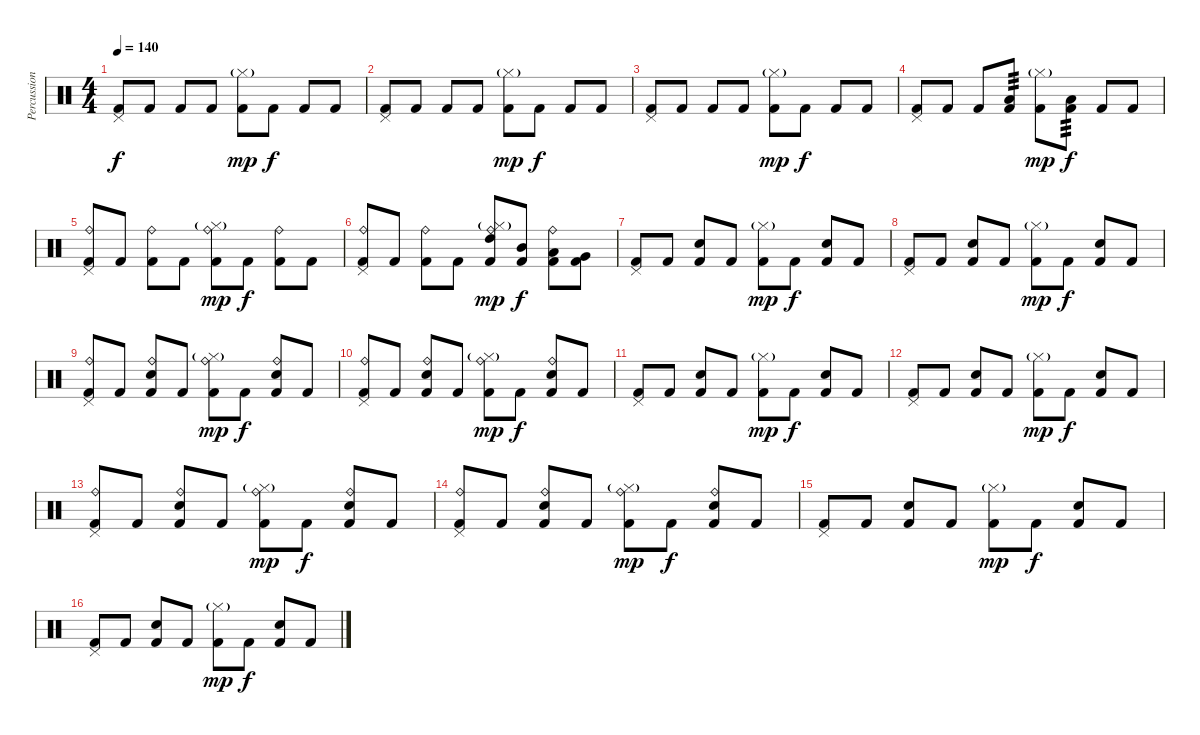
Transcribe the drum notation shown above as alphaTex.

\track ("Percussions" "Percussion") {instrument percussion}
\staff {score}
\articulation defaults
\ts (4 4)
\tempo 140
\clef neutral
\ks c
("Pedal Hi-Hat (hit)" "Kick (hit) 2").8{dy f} "Kick (hit) 2".8 "Kick (hit) 2".8 "Kick (hit) 2".8 ("Hi-Hat (closed)"{g} "Kick (hit) 2").8{dy mp} "Kick (hit) 2".8{dy f} "Kick (hit) 2".8 "Kick (hit) 2".8 |
("Pedal Hi-Hat (hit)" "Kick (hit) 2").8 "Kick (hit) 2".8 "Kick (hit) 2".8 "Kick (hit) 2".8 ("Hi-Hat (closed)"{g} "Kick (hit) 2").8{dy mp} "Kick (hit) 2".8{dy f} "Kick (hit) 2".8 "Kick (hit) 2".8 |
("Pedal Hi-Hat (hit)" "Kick (hit) 2").8 "Kick (hit) 2".8 "Kick (hit) 2".8 "Kick (hit) 2".8 ("Hi-Hat (closed)"{g} "Kick (hit) 2").8{dy mp} "Kick (hit) 2".8{dy f} "Kick (hit) 2".8 "Kick (hit) 2".8 |
("Pedal Hi-Hat (hit)" "Kick (hit) 2").8 "Kick (hit) 2".8 "Kick (hit) 2".8 ("Low Tom (hit)" "Kick (hit) 2").8{tp 3} ("Hi-Hat (closed)"{g} "Kick (hit) 2").8{dy mp} ("Low Tom (hit)" "Kick (hit) 2").8{tp 3 dy f} "Kick (hit) 2".8 "Kick (hit) 2".8 |
("Ride (bell)" "Pedal Hi-Hat (hit)" "Kick (hit) 2").8 "Kick (hit) 2".8 ("Ride (bell)" "Kick (hit) 2").8 "Kick (hit) 2".8 ("Ride (bell)" "Hi-Hat (closed)"{g} "Kick (hit) 2").8{dy mp} "Kick (hit) 2".8{dy f} ("Ride (bell)" "Kick (hit) 2").8 "Kick (hit) 2".8 |
("Ride (bell)" "Pedal Hi-Hat (hit)" "Kick (hit) 2").8 "Kick (hit) 2".8 ("Ride (bell)" "Kick (hit) 2").8 "Kick (hit) 2".8 ("High Tom (hit)" "Ride (bell)" "Hi-Hat (closed)"{g} "Kick (hit) 2").8{dy mp} ("Mid Tom (hit)" "Kick (hit) 2").8{dy f} ("Low Tom (hit)" "Ride (bell)" "Kick (hit) 2").8 ("Very Low Tom (hit)" "Kick (hit) 2").8 |
("Pedal Hi-Hat (hit)" "Kick (hit) 2").8 "Kick (hit) 2".8 ("Snare (hit) 2" "Kick (hit) 2").8 "Kick (hit) 2".8 ("Hi-Hat (closed)"{g} "Kick (hit) 2").8{dy mp} "Kick (hit) 2".8{dy f} ("Snare (hit) 2" "Kick (hit) 2").8 "Kick (hit) 2".8 |
("Pedal Hi-Hat (hit)" "Kick (hit) 2").8 "Kick (hit) 2".8 ("Snare (hit) 2" "Kick (hit) 2").8 "Kick (hit) 2".8 ("Hi-Hat (closed)"{g} "Kick (hit) 2").8{dy mp} "Kick (hit) 2".8{dy f} ("Snare (hit) 2" "Kick (hit) 2").8 "Kick (hit) 2".8 |
("Ride (bell)" "Pedal Hi-Hat (hit)" "Kick (hit) 2").8 "Kick (hit) 2".8 ("Ride (bell)" "Snare (hit) 2" "Kick (hit) 2").8 "Kick (hit) 2".8 ("Ride (bell)" "Hi-Hat (closed)"{g} "Kick (hit) 2").8{dy mp} "Kick (hit) 2".8{dy f} ("Ride (bell)" "Snare (hit) 2" "Kick (hit) 2").8 "Kick (hit) 2".8 |
("Ride (bell)" "Pedal Hi-Hat (hit)" "Kick (hit) 2").8 "Kick (hit) 2".8 ("Ride (bell)" "Snare (hit) 2" "Kick (hit) 2").8 "Kick (hit) 2".8 ("Ride (bell)" "Hi-Hat (closed)"{g} "Kick (hit) 2").8{dy mp} "Kick (hit) 2".8{dy f} ("Ride (bell)" "Snare (hit) 2" "Kick (hit) 2").8 "Kick (hit) 2".8 |
("Pedal Hi-Hat (hit)" "Kick (hit) 2").8 "Kick (hit) 2".8 ("Snare (hit) 2" "Kick (hit) 2").8 "Kick (hit) 2".8 ("Hi-Hat (closed)"{g} "Kick (hit) 2").8{dy mp} "Kick (hit) 2".8{dy f} ("Snare (hit) 2" "Kick (hit) 2").8 "Kick (hit) 2".8 |
("Pedal Hi-Hat (hit)" "Kick (hit) 2").8 "Kick (hit) 2".8 ("Snare (hit) 2" "Kick (hit) 2").8 "Kick (hit) 2".8 ("Hi-Hat (closed)"{g} "Kick (hit) 2").8{dy mp} "Kick (hit) 2".8{dy f} ("Snare (hit) 2" "Kick (hit) 2").8 "Kick (hit) 2".8 |
("Ride (bell)" "Pedal Hi-Hat (hit)" "Kick (hit) 2").8 "Kick (hit) 2".8 ("Ride (bell)" "Snare (hit) 2" "Kick (hit) 2").8 "Kick (hit) 2".8 ("Ride (bell)" "Hi-Hat (closed)"{g} "Kick (hit) 2").8{dy mp} "Kick (hit) 2".8{dy f} ("Ride (bell)" "Snare (hit) 2" "Kick (hit) 2").8 "Kick (hit) 2".8 |
("Ride (bell)" "Pedal Hi-Hat (hit)" "Kick (hit) 2").8 "Kick (hit) 2".8 ("Ride (bell)" "Snare (hit) 2" "Kick (hit) 2").8 "Kick (hit) 2".8 ("Ride (bell)" "Hi-Hat (closed)"{g} "Kick (hit) 2").8{dy mp} "Kick (hit) 2".8{dy f} ("Ride (bell)" "Snare (hit) 2" "Kick (hit) 2").8 "Kick (hit) 2".8 |
("Pedal Hi-Hat (hit)" "Kick (hit) 2").8 "Kick (hit) 2".8 ("Snare (hit) 2" "Kick (hit) 2").8 "Kick (hit) 2".8 ("Hi-Hat (closed)"{g} "Kick (hit) 2").8{dy mp} "Kick (hit) 2".8{dy f} ("Snare (hit) 2" "Kick (hit) 2").8 "Kick (hit) 2".8 |
("Pedal Hi-Hat (hit)" "Kick (hit) 2").8 "Kick (hit) 2".8 ("Snare (hit) 2" "Kick (hit) 2").8 "Kick (hit) 2".8 ("Hi-Hat (closed)"{g} "Kick (hit) 2").8{dy mp} "Kick (hit) 2".8{dy f} ("Snare (hit) 2" "Kick (hit) 2").8 "Kick (hit) 2".8
